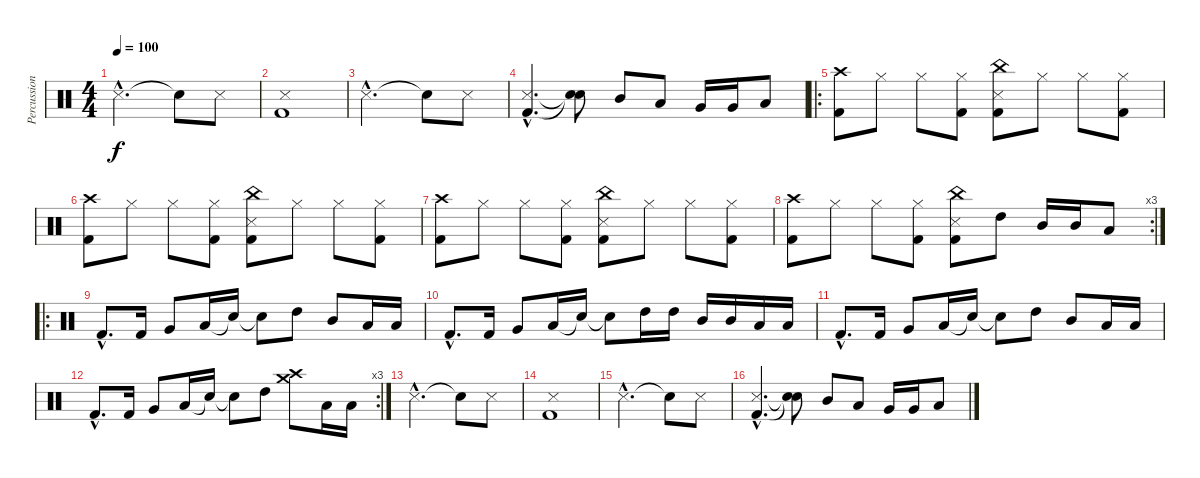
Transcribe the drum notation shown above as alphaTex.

\track ("Percussion" "Percussion") {instrument percussion}
\staff {score}
\articulation defaults
\ts (4 4)
\tempo 100
\clef neutral
\ks c "Snare (side stick) 3"{hac}.2{d dy f} "Snare (hit)"{t}.8 "Snare (side stick) 3".8
|
("Snare (side stick) 3" "Kick (hit) 2").1 |
"Snare (side stick) 3"{hac}.2{d} "Snare (hit)"{t}.8 "Snare (side stick) 3".8 |
("Snare (side stick) 3"{hac} "Kick (hit) 2"{hac}).4{d} ("Snare (hit)"{t} "Snare (hit)"{t}).8 "Mid Tom (hit)".8 "Low Tom (hit)".8 "Very Low Tom (hit)".16 "Very Low Tom (hit)".16 "Low Floor Tom (hit)".8 |
\ro
("Crash high (hit)" "Kick (hit) 2").8 "Hi-Hat (closed)".8 "Hi-Hat (closed)".8 ("Hi-Hat (closed)" "Kick (hit) 2").8 ("China (hit)" "Snare (side stick) 3" "Kick (hit) 2").8 "Hi-Hat (closed)".8 "Hi-Hat (closed)".8 ("Hi-Hat (closed)" "Kick (hit) 2").8 |
("Crash high (hit)" "Kick (hit) 2").8 "Hi-Hat (closed)".8 "Hi-Hat (closed)".8 ("Hi-Hat (closed)" "Kick (hit) 2").8 ("China (hit)" "Snare (side stick) 3" "Kick (hit) 2").8 "Hi-Hat (closed)".8 "Hi-Hat (closed)".8 ("Hi-Hat (closed)" "Kick (hit) 2").8 |
("Crash high (hit)" "Kick (hit) 2").8 "Hi-Hat (closed)".8 "Hi-Hat (closed)".8 ("Hi-Hat (closed)" "Kick (hit) 2").8 ("China (hit)" "Snare (side stick) 3" "Kick (hit) 2").8 "Hi-Hat (closed)".8 "Hi-Hat (closed)".8 ("Hi-Hat (closed)" "Kick (hit) 2").8 |
\rc 3
("Crash high (hit)" "Kick (hit) 2").8 "Hi-Hat (closed)".8 "Hi-Hat (closed)".8 ("Hi-Hat (closed)" "Kick (hit) 2").8 ("China (hit)" "Snare (side stick) 3" "Kick (hit) 2").8 "High Tom (hit)".8 "Mid Tom (hit)".16 "Mid Tom (hit)".16 "Low Tom (hit)".8 |
\ro "Kick (hit) 2"{hac}.8{d} "Kick (hit) 2".16 "Very Low Tom (hit)".8 "Low Floor Tom (hit)".16 "Snare (hit)"{t}.16 "Snare (hit)"{t}.8 "High Tom (hit)".8 "Mid Tom (hit)".8 "Low Tom (hit)".16 "Low Tom (hit)".16
|
"Kick (hit) 2"{hac}.8{d} "Kick (hit) 2".16 "Very Low Tom (hit)".8 "Low Floor Tom (hit)".16 "Snare (hit)"{t}.16 "Snare (hit)"{t}.8 "High Tom (hit)".16 "High Tom (hit)".16 "Mid Tom (hit)".16 "Mid Tom (hit)".16 "Low Tom (hit)".16 "Low Tom (hit)".16 |
"Kick (hit) 2"{hac}.8{d} "Kick (hit) 2".16 "Very Low Tom (hit)".8 "Low Floor Tom (hit)".16 "Snare (hit)"{t}.16 "Snare (hit)"{t}.8 "High Tom (hit)".8 "Mid Tom (hit)".8 "Low Tom (hit)".16 "Low Tom (hit)".16 |
\rc 3 "Kick (hit) 2"{hac}.8{d} "Kick (hit) 2".16 "Very Low Tom (hit)".8 "Low Floor Tom (hit)".16 "Snare (hit)"{t}.16 "Snare (hit)"{t}.8 "High Tom (hit)".8
("Crash medium (hit)" "Crash high (hit)").8 "Low Tom (hit)".16 "Low Tom (hit)".16 |
"Snare (side stick) 3"{hac}.2{d} "Snare (hit)"{t}.8 "Snare (side stick) 3".8 |
("Snare (side stick) 3" "Kick (hit) 2").1 |
"Snare (side stick) 3"{hac}.2{d} "Snare (hit)"{t}.8 "Snare (side stick) 3".8 |
("Snare (side stick) 3"{hac} "Kick (hit) 2"{hac}).4{d} ("Snare (hit)"{t} "Snare (hit)"{t}).8 "Mid Tom (hit)".8 "Low Tom (hit)".8 "Very Low Tom (hit)".16 "Very Low Tom (hit)".16 "Low Floor Tom (hit)".8
